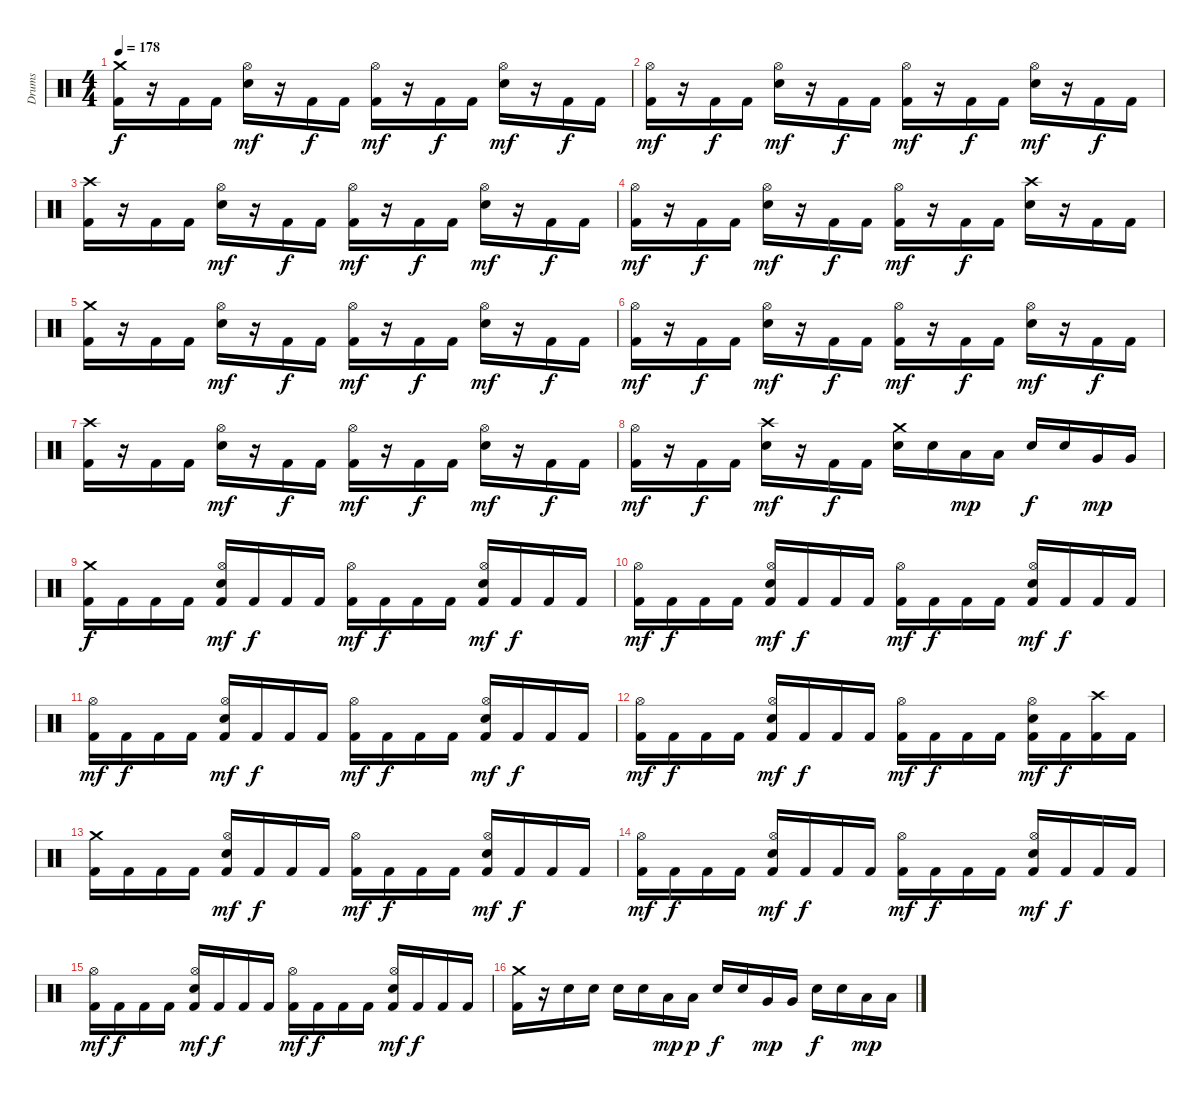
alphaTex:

\track ("Drums" "Drums") {instrument percussion}
\staff {score}
\articulation defaults
\ts (4 4)
\tempo 178
\clef neutral
\ks c
("Crash medium (hit)" "Kick (hit) 2").16{dy f} r.16 "Kick (hit) 2".16 "Kick (hit) 2".16 ("Hi-Hat (open)" "Snare (hit) 2").16{dy mf} r.16 "Kick (hit) 2".16{dy f} "Kick (hit) 2".16 ("Hi-Hat (open)" "Kick (hit) 2").16{dy mf} r.16 "Kick (hit) 2".16{dy f} "Kick (hit) 2".16 ("Hi-Hat (open)" "Snare (hit) 2").16{dy mf} r.16 "Kick (hit) 2".16{dy f} "Kick (hit) 2".16 |
("Hi-Hat (open)" "Kick (hit) 2").16{dy mf} r.16 "Kick (hit) 2".16{dy f} "Kick (hit) 2".16 ("Hi-Hat (open)" "Snare (hit) 2").16{dy mf} r.16 "Kick (hit) 2".16{dy f} "Kick (hit) 2".16 ("Hi-Hat (open)" "Kick (hit) 2").16{dy mf} r.16 "Kick (hit) 2".16{dy f} "Kick (hit) 2".16 ("Hi-Hat (open)" "Snare (hit) 2").16{dy mf} r.16 "Kick (hit) 2".16{dy f} "Kick (hit) 2".16 |
("Crash high (hit)" "Kick (hit) 2").16 r.16 "Kick (hit) 2".16 "Kick (hit) 2".16 ("Hi-Hat (open)" "Snare (hit) 2").16{dy mf} r.16 "Kick (hit) 2".16{dy f} "Kick (hit) 2".16 ("Hi-Hat (open)" "Kick (hit) 2").16{dy mf} r.16 "Kick (hit) 2".16{dy f} "Kick (hit) 2".16 ("Hi-Hat (open)" "Snare (hit) 2").16{dy mf} r.16 "Kick (hit) 2".16{dy f} "Kick (hit) 2".16 |
("Hi-Hat (open)" "Kick (hit) 2").16{dy mf} r.16 "Kick (hit) 2".16{dy f} "Kick (hit) 2".16 ("Hi-Hat (open)" "Snare (hit) 2").16{dy mf} r.16 "Kick (hit) 2".16{dy f} "Kick (hit) 2".16 ("Hi-Hat (open)" "Kick (hit) 2").16{dy mf} r.16 "Kick (hit) 2".16{dy f} "Kick (hit) 2".16 ("Crash high (hit)" "Snare (hit) 2").16 r.16 "Kick (hit) 2".16 "Kick (hit) 2".16 |
("Crash medium (hit)" "Kick (hit) 2").16 r.16 "Kick (hit) 2".16 "Kick (hit) 2".16 ("Hi-Hat (open)" "Snare (hit) 2").16{dy mf} r.16 "Kick (hit) 2".16{dy f} "Kick (hit) 2".16 ("Hi-Hat (open)" "Kick (hit) 2").16{dy mf} r.16 "Kick (hit) 2".16{dy f} "Kick (hit) 2".16 ("Hi-Hat (open)" "Snare (hit) 2").16{dy mf} r.16 "Kick (hit) 2".16{dy f} "Kick (hit) 2".16 |
("Hi-Hat (open)" "Kick (hit) 2").16{dy mf} r.16 "Kick (hit) 2".16{dy f} "Kick (hit) 2".16 ("Hi-Hat (open)" "Snare (hit) 2").16{dy mf} r.16 "Kick (hit) 2".16{dy f} "Kick (hit) 2".16 ("Hi-Hat (open)" "Kick (hit) 2").16{dy mf} r.16 "Kick (hit) 2".16{dy f} "Kick (hit) 2".16 ("Hi-Hat (open)" "Snare (hit) 2").16{dy mf} r.16 "Kick (hit) 2".16{dy f} "Kick (hit) 2".16 |
("Crash high (hit)" "Kick (hit) 2").16 r.16 "Kick (hit) 2".16 "Kick (hit) 2".16 ("Hi-Hat (open)" "Snare (hit) 2").16{dy mf} r.16 "Kick (hit) 2".16{dy f} "Kick (hit) 2".16 ("Hi-Hat (open)" "Kick (hit) 2").16{dy mf} r.16 "Kick (hit) 2".16{dy f} "Kick (hit) 2".16 ("Hi-Hat (open)" "Snare (hit) 2").16{dy mf} r.16 "Kick (hit) 2".16{dy f} "Kick (hit) 2".16 |
("Hi-Hat (open)" "Kick (hit) 2").16{dy mf} r.16 "Kick (hit) 2".16{dy f} "Kick (hit) 2".16 ("Crash high (hit)" "Snare (hit) 2").16{dy mf} r.16 "Kick (hit) 2".16{dy f} "Kick (hit) 2".16 ("Crash medium (hit)" "Snare (hit) 2").16 "Snare (hit) 2".16 "Low Tom (hit)".16{dy mp} "Low Tom (hit)".16 "Snare (hit) 2".16{dy f} "Snare (hit) 2".16 "Very Low Tom (hit)".16{dy mp} "Very Low Tom (hit)".16 |
("Crash medium (hit)" "Kick (hit) 2").16{dy f} "Kick (hit) 2".16 "Kick (hit) 2".16 "Kick (hit) 2".16 ("Hi-Hat (open)" "Snare (hit) 2" "Kick (hit) 2").16{dy mf} "Kick (hit) 2".16{dy f} "Kick (hit) 2".16 "Kick (hit) 2".16 ("Hi-Hat (open)" "Kick (hit) 2").16{dy mf} "Kick (hit) 2".16{dy f} "Kick (hit) 2".16 "Kick (hit) 2".16 ("Hi-Hat (open)" "Snare (hit) 2" "Kick (hit) 2").16{dy mf} "Kick (hit) 2".16{dy f} "Kick (hit) 2".16 "Kick (hit) 2".16 |
("Hi-Hat (open)" "Kick (hit) 2").16{dy mf} "Kick (hit) 2".16{dy f} "Kick (hit) 2".16 "Kick (hit) 2".16 ("Hi-Hat (open)" "Snare (hit) 2" "Kick (hit) 2").16{dy mf} "Kick (hit) 2".16{dy f} "Kick (hit) 2".16 "Kick (hit) 2".16 ("Hi-Hat (open)" "Kick (hit) 2").16{dy mf} "Kick (hit) 2".16{dy f} "Kick (hit) 2".16 "Kick (hit) 2".16 ("Hi-Hat (open)" "Snare (hit) 2" "Kick (hit) 2").16{dy mf} "Kick (hit) 2".16{dy f} "Kick (hit) 2".16 "Kick (hit) 2".16 |
("Hi-Hat (open)" "Kick (hit) 2").16{dy mf} "Kick (hit) 2".16{dy f} "Kick (hit) 2".16 "Kick (hit) 2".16 ("Hi-Hat (open)" "Snare (hit) 2" "Kick (hit) 2").16{dy mf} "Kick (hit) 2".16{dy f} "Kick (hit) 2".16 "Kick (hit) 2".16 ("Hi-Hat (open)" "Kick (hit) 2").16{dy mf} "Kick (hit) 2".16{dy f} "Kick (hit) 2".16 "Kick (hit) 2".16 ("Hi-Hat (open)" "Snare (hit) 2" "Kick (hit) 2").16{dy mf} "Kick (hit) 2".16{dy f} "Kick (hit) 2".16 "Kick (hit) 2".16 |
("Hi-Hat (open)" "Kick (hit) 2").16{dy mf} "Kick (hit) 2".16{dy f} "Kick (hit) 2".16 "Kick (hit) 2".16 ("Hi-Hat (open)" "Snare (hit) 2" "Kick (hit) 2").16{dy mf} "Kick (hit) 2".16{dy f} "Kick (hit) 2".16 "Kick (hit) 2".16 ("Hi-Hat (open)" "Kick (hit) 2").16{dy mf} "Kick (hit) 2".16{dy f} "Kick (hit) 2".16 "Kick (hit) 2".16 ("Hi-Hat (open)" "Snare (hit) 2" "Kick (hit) 2").16{dy mf} "Kick (hit) 2".16{dy f} ("Crash high (hit)" "Kick (hit) 2").16 "Kick (hit) 2".16 |
("Crash medium (hit)" "Kick (hit) 2").16 "Kick (hit) 2".16 "Kick (hit) 2".16 "Kick (hit) 2".16 ("Hi-Hat (open)" "Snare (hit) 2" "Kick (hit) 2").16{dy mf} "Kick (hit) 2".16{dy f} "Kick (hit) 2".16 "Kick (hit) 2".16 ("Hi-Hat (open)" "Kick (hit) 2").16{dy mf} "Kick (hit) 2".16{dy f} "Kick (hit) 2".16 "Kick (hit) 2".16 ("Hi-Hat (open)" "Snare (hit) 2" "Kick (hit) 2").16{dy mf} "Kick (hit) 2".16{dy f} "Kick (hit) 2".16 "Kick (hit) 2".16 |
("Hi-Hat (open)" "Kick (hit) 2").16{dy mf} "Kick (hit) 2".16{dy f} "Kick (hit) 2".16 "Kick (hit) 2".16 ("Hi-Hat (open)" "Snare (hit) 2" "Kick (hit) 2").16{dy mf} "Kick (hit) 2".16{dy f} "Kick (hit) 2".16 "Kick (hit) 2".16 ("Hi-Hat (open)" "Kick (hit) 2").16{dy mf} "Kick (hit) 2".16{dy f} "Kick (hit) 2".16 "Kick (hit) 2".16 ("Hi-Hat (open)" "Snare (hit) 2" "Kick (hit) 2").16{dy mf} "Kick (hit) 2".16{dy f} "Kick (hit) 2".16 "Kick (hit) 2".16 |
("Hi-Hat (open)" "Kick (hit) 2").16{dy mf} "Kick (hit) 2".16{dy f} "Kick (hit) 2".16 "Kick (hit) 2".16 ("Hi-Hat (open)" "Snare (hit) 2" "Kick (hit) 2").16{dy mf} "Kick (hit) 2".16{dy f} "Kick (hit) 2".16 "Kick (hit) 2".16 ("Hi-Hat (open)" "Kick (hit) 2").16{dy mf} "Kick (hit) 2".16{dy f} "Kick (hit) 2".16 "Kick (hit) 2".16 ("Hi-Hat (open)" "Snare (hit) 2" "Kick (hit) 2").16{dy mf} "Kick (hit) 2".16{dy f} "Kick (hit) 2".16 "Kick (hit) 2".16 |
("Crash medium (hit)" "Kick (hit) 2").16 r.16 "Snare (hit) 2".16 "Snare (hit) 2".16 "Snare (hit) 2".16 "Snare (hit) 2".16 "Low Tom (hit)".16{dy mp} "Low Tom (hit)".16{dy p} "Snare (hit) 2".16{dy f} "Snare (hit) 2".16 "Very Low Tom (hit)".16{dy mp} "Very Low Tom (hit)".16 "Snare (hit) 2".16{dy f} "Snare (hit) 2".16 "Low Floor Tom (hit)".16{dy mp} "Low Floor Tom (hit)".16
